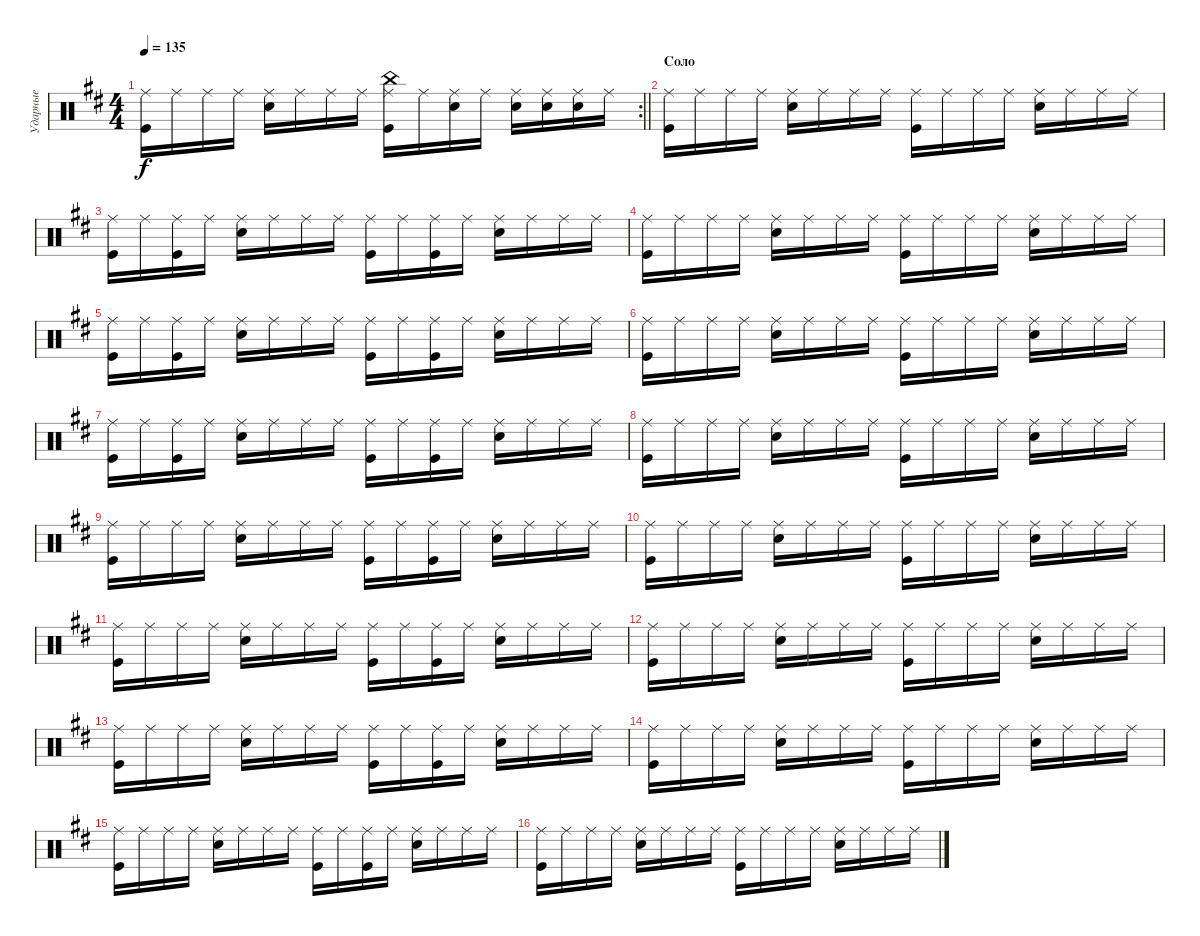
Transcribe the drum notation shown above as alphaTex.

\track ("Ударные" "Ударные") {solo instrument percussion}
\staff {score}
\articulation defaults
\rc 2
\ts (4 4)
\tempo 135
\clef neutral
\barLineRight lightlight
\ks bminor
("Kick (hit)" "Ride (middle)").16{dy f} "Ride (middle)".16 "Ride (middle)".16 "Ride (middle)".16 ("Ride (middle)" "Snare (hit) 2").16 "Ride (middle)".16 "Ride (middle)".16 "Ride (middle)".16 ("Ride (middle)" "China (hit)" "Kick (hit)").16 "Ride (middle)".16 ("Ride (middle)" "Snare (hit) 2").16 "Ride (middle)".16 ("Ride (middle)" "Snare (hit) 2").16 ("Ride (middle)" "Snare (hit) 2").16 ("Ride (middle)" "Snare (hit) 2").16 "Ride (middle)".16 |
\section ("" "Соло")
("Kick (hit)" "Ride (middle)").16 "Ride (middle)".16 "Ride (middle)".16 "Ride (middle)".16 ("Ride (middle)" "Snare (hit) 2").16 "Ride (middle)".16 "Ride (middle)".16 "Ride (middle)".16 ("Kick (hit)" "Ride (middle)").16 "Ride (middle)".16 "Ride (middle)".16 "Ride (middle)".16 ("Ride (middle)" "Snare (hit) 2").16 "Ride (middle)".16 "Ride (middle)".16 "Ride (middle)".16 |
("Kick (hit)" "Ride (middle)").16 "Ride (middle)".16 ("Kick (hit)" "Ride (middle)").16 "Ride (middle)".16 ("Ride (middle)" "Snare (hit) 2").16 "Ride (middle)".16 "Ride (middle)".16 "Ride (middle)".16 ("Kick (hit)" "Ride (middle)").16 "Ride (middle)".16 ("Kick (hit)" "Ride (middle)").16 "Ride (middle)".16 ("Ride (middle)" "Snare (hit) 2").16 "Ride (middle)".16 "Ride (middle)".16 "Ride (middle)".16 |
("Kick (hit)" "Ride (middle)").16 "Ride (middle)".16 "Ride (middle)".16 "Ride (middle)".16 ("Ride (middle)" "Snare (hit) 2").16 "Ride (middle)".16 "Ride (middle)".16 "Ride (middle)".16 ("Kick (hit)" "Ride (middle)").16 "Ride (middle)".16 "Ride (middle)".16 "Ride (middle)".16 ("Ride (middle)" "Snare (hit) 2").16 "Ride (middle)".16 "Ride (middle)".16 "Ride (middle)".16 |
("Kick (hit)" "Ride (middle)").16 "Ride (middle)".16 ("Kick (hit)" "Ride (middle)").16 "Ride (middle)".16 ("Ride (middle)" "Snare (hit) 2").16 "Ride (middle)".16 "Ride (middle)".16 "Ride (middle)".16 ("Kick (hit)" "Ride (middle)").16 "Ride (middle)".16 ("Kick (hit)" "Ride (middle)").16 "Ride (middle)".16 ("Ride (middle)" "Snare (hit) 2").16 "Ride (middle)".16 "Ride (middle)".16 "Ride (middle)".16 |
("Kick (hit)" "Ride (middle)").16 "Ride (middle)".16 "Ride (middle)".16 "Ride (middle)".16 ("Ride (middle)" "Snare (hit) 2").16 "Ride (middle)".16 "Ride (middle)".16 "Ride (middle)".16 ("Kick (hit)" "Ride (middle)").16 "Ride (middle)".16 "Ride (middle)".16 "Ride (middle)".16 ("Ride (middle)" "Snare (hit) 2").16 "Ride (middle)".16 "Ride (middle)".16 "Ride (middle)".16 |
("Kick (hit)" "Ride (middle)").16 "Ride (middle)".16 ("Kick (hit)" "Ride (middle)").16 "Ride (middle)".16 ("Ride (middle)" "Snare (hit) 2").16 "Ride (middle)".16 "Ride (middle)".16 "Ride (middle)".16 ("Kick (hit)" "Ride (middle)").16 "Ride (middle)".16 ("Kick (hit)" "Ride (middle)").16 "Ride (middle)".16 ("Ride (middle)" "Snare (hit) 2").16 "Ride (middle)".16 "Ride (middle)".16 "Ride (middle)".16 |
("Kick (hit)" "Ride (middle)").16 "Ride (middle)".16 "Ride (middle)".16 "Ride (middle)".16 ("Ride (middle)" "Snare (hit) 2").16 "Ride (middle)".16 "Ride (middle)".16 "Ride (middle)".16 ("Kick (hit)" "Ride (middle)").16 "Ride (middle)".16 "Ride (middle)".16 "Ride (middle)".16 ("Ride (middle)" "Snare (hit) 2").16 "Ride (middle)".16 "Ride (middle)".16 "Ride (middle)".16 |
("Kick (hit)" "Ride (middle)").16 "Ride (middle)".16 "Ride (middle)".16 "Ride (middle)".16 ("Ride (middle)" "Snare (hit) 2").16 "Ride (middle)".16 "Ride (middle)".16 "Ride (middle)".16 ("Kick (hit)" "Ride (middle)").16 "Ride (middle)".16 ("Kick (hit)" "Ride (middle)").16 "Ride (middle)".16 ("Ride (middle)" "Snare (hit) 2").16 "Ride (middle)".16 "Ride (middle)".16 "Ride (middle)".16 |
("Kick (hit)" "Ride (middle)").16 "Ride (middle)".16 "Ride (middle)".16 "Ride (middle)".16 ("Ride (middle)" "Snare (hit) 2").16 "Ride (middle)".16 "Ride (middle)".16 "Ride (middle)".16 ("Kick (hit)" "Ride (middle)").16 "Ride (middle)".16 "Ride (middle)".16 "Ride (middle)".16 ("Ride (middle)" "Snare (hit) 2").16 "Ride (middle)".16 "Ride (middle)".16 "Ride (middle)".16 |
("Kick (hit)" "Ride (middle)").16 "Ride (middle)".16 "Ride (middle)".16 "Ride (middle)".16 ("Ride (middle)" "Snare (hit) 2").16 "Ride (middle)".16 "Ride (middle)".16 "Ride (middle)".16 ("Kick (hit)" "Ride (middle)").16 "Ride (middle)".16 ("Kick (hit)" "Ride (middle)").16 "Ride (middle)".16 ("Ride (middle)" "Snare (hit) 2").16 "Ride (middle)".16 "Ride (middle)".16 "Ride (middle)".16 |
("Kick (hit)" "Ride (middle)").16 "Ride (middle)".16 "Ride (middle)".16 "Ride (middle)".16 ("Ride (middle)" "Snare (hit) 2").16 "Ride (middle)".16 "Ride (middle)".16 "Ride (middle)".16 ("Kick (hit)" "Ride (middle)").16 "Ride (middle)".16 "Ride (middle)".16 "Ride (middle)".16 ("Ride (middle)" "Snare (hit) 2").16 "Ride (middle)".16 "Ride (middle)".16 "Ride (middle)".16 |
("Kick (hit)" "Ride (middle)").16 "Ride (middle)".16 "Ride (middle)".16 "Ride (middle)".16 ("Ride (middle)" "Snare (hit) 2").16 "Ride (middle)".16 "Ride (middle)".16 "Ride (middle)".16 ("Kick (hit)" "Ride (middle)").16 "Ride (middle)".16 ("Kick (hit)" "Ride (middle)").16 "Ride (middle)".16 ("Ride (middle)" "Snare (hit) 2").16 "Ride (middle)".16 "Ride (middle)".16 "Ride (middle)".16 |
("Kick (hit)" "Ride (middle)").16 "Ride (middle)".16 "Ride (middle)".16 "Ride (middle)".16 ("Ride (middle)" "Snare (hit) 2").16 "Ride (middle)".16 "Ride (middle)".16 "Ride (middle)".16 ("Kick (hit)" "Ride (middle)").16 "Ride (middle)".16 "Ride (middle)".16 "Ride (middle)".16 ("Ride (middle)" "Snare (hit) 2").16 "Ride (middle)".16 "Ride (middle)".16 "Ride (middle)".16 |
("Kick (hit)" "Ride (middle)").16 "Ride (middle)".16 "Ride (middle)".16 "Ride (middle)".16 ("Ride (middle)" "Snare (hit) 2").16 "Ride (middle)".16 "Ride (middle)".16 "Ride (middle)".16 ("Kick (hit)" "Ride (middle)").16 "Ride (middle)".16 ("Kick (hit)" "Ride (middle)").16 "Ride (middle)".16 ("Ride (middle)" "Snare (hit) 2").16 "Ride (middle)".16 "Ride (middle)".16 "Ride (middle)".16 |
("Kick (hit)" "Ride (middle)").16 "Ride (middle)".16 "Ride (middle)".16 "Ride (middle)".16 ("Ride (middle)" "Snare (hit) 2").16 "Ride (middle)".16 "Ride (middle)".16 "Ride (middle)".16 ("Kick (hit)" "Ride (middle)").16 "Ride (middle)".16 "Ride (middle)".16 "Ride (middle)".16 ("Ride (middle)" "Snare (hit) 2").16 "Ride (middle)".16 "Ride (middle)".16 "Ride (middle)".16
